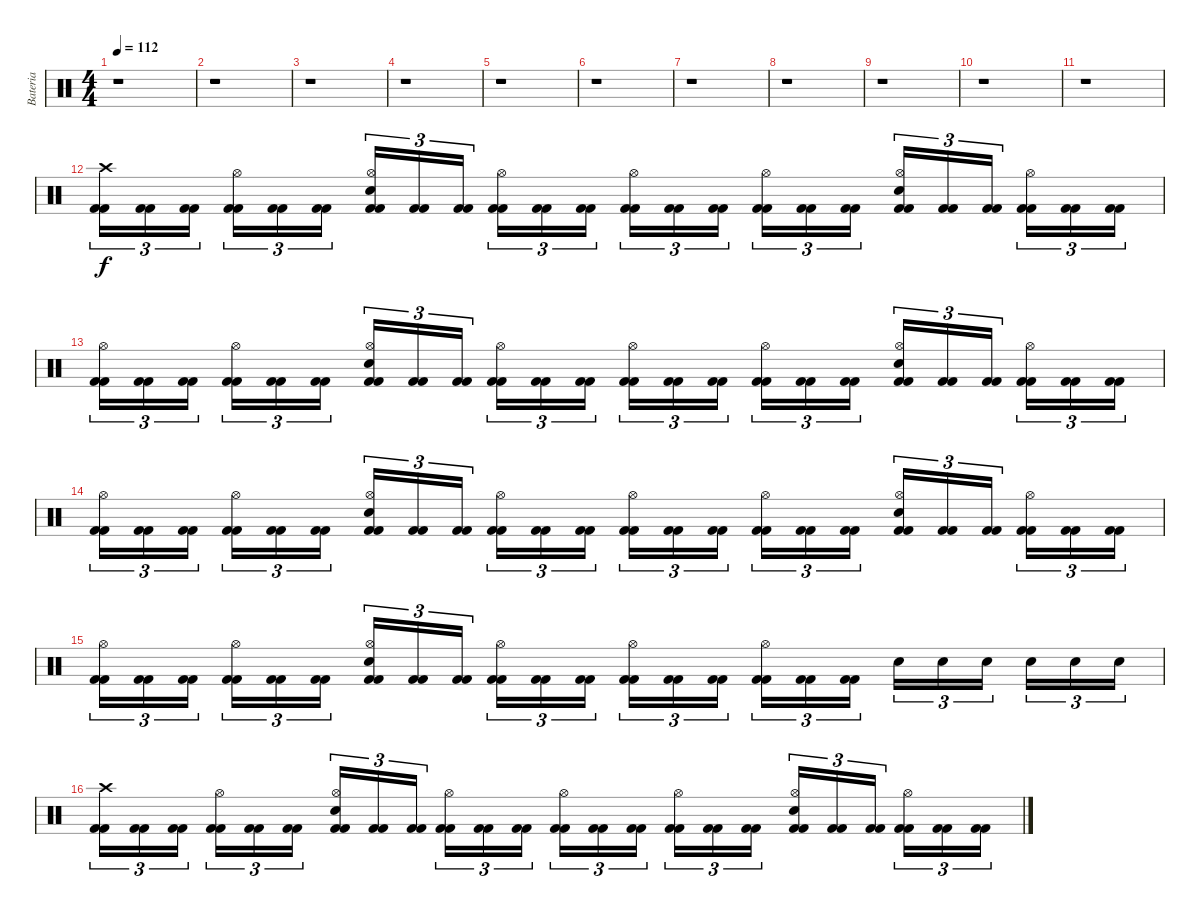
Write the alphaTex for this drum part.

\track ("Bateria" "Bateria") {instrument percussion}
\staff {score}
\articulation defaults
\ts (4 4)
\tempo 112
\clef neutral
\ks c
r.1{dy f} |
r.1 |
r.1 |
r.1 |
r.1 |
r.1 |
r.1 |
r.1 |
r.1 |
r.1 |
r.1 |
("Kick (hit) 2" "Kick (hit) 2" "Crash high (hit)").16{tu (3 2)} ("Kick (hit) 2" "Kick (hit) 2").16{tu (3 2)} ("Kick (hit) 2" "Kick (hit) 2").16{tu (3 2)} ("Kick (hit) 2" "Kick (hit) 2" "Hi-Hat (open)").16{tu (3 2)} ("Kick (hit) 2" "Kick (hit) 2").16{tu (3 2)} ("Kick (hit) 2" "Kick (hit) 2").16{tu (3 2)} ("Kick (hit) 2" "Kick (hit) 2" "Snare (hit) 2" "Hi-Hat (open)").16{tu (3 2)} ("Kick (hit) 2" "Kick (hit) 2").16{tu (3 2)} ("Kick (hit) 2" "Kick (hit) 2").16{tu (3 2)} ("Kick (hit) 2" "Kick (hit) 2" "Hi-Hat (open)").16{tu (3 2)} ("Kick (hit) 2" "Kick (hit) 2").16{tu (3 2)} ("Kick (hit) 2" "Kick (hit) 2").16{tu (3 2)} ("Kick (hit) 2" "Kick (hit) 2" "Hi-Hat (open)").16{tu (3 2)} ("Kick (hit) 2" "Kick (hit) 2").16{tu (3 2)} ("Kick (hit) 2" "Kick (hit) 2").16{tu (3 2)} ("Kick (hit) 2" "Kick (hit) 2" "Hi-Hat (open)").16{tu (3 2)} ("Kick (hit) 2" "Kick (hit) 2").16{tu (3 2)} ("Kick (hit) 2" "Kick (hit) 2").16{tu (3 2)} ("Kick (hit) 2" "Kick (hit) 2" "Snare (hit) 2" "Hi-Hat (open)").16{tu (3 2)} ("Kick (hit) 2" "Kick (hit) 2").16{tu (3 2)} ("Kick (hit) 2" "Kick (hit) 2").16{tu (3 2)} ("Kick (hit) 2" "Kick (hit) 2" "Hi-Hat (open)").16{tu (3 2)} ("Kick (hit) 2" "Kick (hit) 2").16{tu (3 2)} ("Kick (hit) 2" "Kick (hit) 2").16{tu (3 2)} |
("Kick (hit) 2" "Kick (hit) 2" "Hi-Hat (open)").16{tu (3 2)} ("Kick (hit) 2" "Kick (hit) 2").16{tu (3 2)} ("Kick (hit) 2" "Kick (hit) 2").16{tu (3 2)} ("Kick (hit) 2" "Kick (hit) 2" "Hi-Hat (open)").16{tu (3 2)} ("Kick (hit) 2" "Kick (hit) 2").16{tu (3 2)} ("Kick (hit) 2" "Kick (hit) 2").16{tu (3 2)} ("Kick (hit) 2" "Kick (hit) 2" "Snare (hit) 2" "Hi-Hat (open)").16{tu (3 2)} ("Kick (hit) 2" "Kick (hit) 2").16{tu (3 2)} ("Kick (hit) 2" "Kick (hit) 2").16{tu (3 2)} ("Kick (hit) 2" "Kick (hit) 2" "Hi-Hat (open)").16{tu (3 2)} ("Kick (hit) 2" "Kick (hit) 2").16{tu (3 2)} ("Kick (hit) 2" "Kick (hit) 2").16{tu (3 2)} ("Kick (hit) 2" "Kick (hit) 2" "Hi-Hat (open)").16{tu (3 2)} ("Kick (hit) 2" "Kick (hit) 2").16{tu (3 2)} ("Kick (hit) 2" "Kick (hit) 2").16{tu (3 2)} ("Kick (hit) 2" "Kick (hit) 2" "Hi-Hat (open)").16{tu (3 2)} ("Kick (hit) 2" "Kick (hit) 2").16{tu (3 2)} ("Kick (hit) 2" "Kick (hit) 2").16{tu (3 2)} ("Kick (hit) 2" "Kick (hit) 2" "Snare (hit) 2" "Hi-Hat (open)").16{tu (3 2)} ("Kick (hit) 2" "Kick (hit) 2").16{tu (3 2)} ("Kick (hit) 2" "Kick (hit) 2").16{tu (3 2)} ("Kick (hit) 2" "Kick (hit) 2" "Hi-Hat (open)").16{tu (3 2)} ("Kick (hit) 2" "Kick (hit) 2").16{tu (3 2)} ("Kick (hit) 2" "Kick (hit) 2").16{tu (3 2)} |
("Kick (hit) 2" "Kick (hit) 2" "Hi-Hat (open)").16{tu (3 2)} ("Kick (hit) 2" "Kick (hit) 2").16{tu (3 2)} ("Kick (hit) 2" "Kick (hit) 2").16{tu (3 2)} ("Kick (hit) 2" "Kick (hit) 2" "Hi-Hat (open)").16{tu (3 2)} ("Kick (hit) 2" "Kick (hit) 2").16{tu (3 2)} ("Kick (hit) 2" "Kick (hit) 2").16{tu (3 2)} ("Kick (hit) 2" "Kick (hit) 2" "Snare (hit) 2" "Hi-Hat (open)").16{tu (3 2)} ("Kick (hit) 2" "Kick (hit) 2").16{tu (3 2)} ("Kick (hit) 2" "Kick (hit) 2").16{tu (3 2)} ("Kick (hit) 2" "Kick (hit) 2" "Hi-Hat (open)").16{tu (3 2)} ("Kick (hit) 2" "Kick (hit) 2").16{tu (3 2)} ("Kick (hit) 2" "Kick (hit) 2").16{tu (3 2)} ("Kick (hit) 2" "Kick (hit) 2" "Hi-Hat (open)").16{tu (3 2)} ("Kick (hit) 2" "Kick (hit) 2").16{tu (3 2)} ("Kick (hit) 2" "Kick (hit) 2").16{tu (3 2)} ("Kick (hit) 2" "Kick (hit) 2" "Hi-Hat (open)").16{tu (3 2)} ("Kick (hit) 2" "Kick (hit) 2").16{tu (3 2)} ("Kick (hit) 2" "Kick (hit) 2").16{tu (3 2)} ("Kick (hit) 2" "Kick (hit) 2" "Snare (hit) 2" "Hi-Hat (open)").16{tu (3 2)} ("Kick (hit) 2" "Kick (hit) 2").16{tu (3 2)} ("Kick (hit) 2" "Kick (hit) 2").16{tu (3 2)} ("Kick (hit) 2" "Kick (hit) 2" "Hi-Hat (open)").16{tu (3 2)} ("Kick (hit) 2" "Kick (hit) 2").16{tu (3 2)} ("Kick (hit) 2" "Kick (hit) 2").16{tu (3 2)} |
("Kick (hit) 2" "Kick (hit) 2" "Hi-Hat (open)").16{tu (3 2)} ("Kick (hit) 2" "Kick (hit) 2").16{tu (3 2)} ("Kick (hit) 2" "Kick (hit) 2").16{tu (3 2)} ("Kick (hit) 2" "Kick (hit) 2" "Hi-Hat (open)").16{tu (3 2)} ("Kick (hit) 2" "Kick (hit) 2").16{tu (3 2)} ("Kick (hit) 2" "Kick (hit) 2").16{tu (3 2)} ("Kick (hit) 2" "Kick (hit) 2" "Snare (hit) 2" "Hi-Hat (open)").16{tu (3 2)} ("Kick (hit) 2" "Kick (hit) 2").16{tu (3 2)} ("Kick (hit) 2" "Kick (hit) 2").16{tu (3 2)} ("Kick (hit) 2" "Kick (hit) 2" "Hi-Hat (open)").16{tu (3 2)} ("Kick (hit) 2" "Kick (hit) 2").16{tu (3 2)} ("Kick (hit) 2" "Kick (hit) 2").16{tu (3 2)} ("Kick (hit) 2" "Kick (hit) 2" "Hi-Hat (open)").16{tu (3 2)} ("Kick (hit) 2" "Kick (hit) 2").16{tu (3 2)} ("Kick (hit) 2" "Kick (hit) 2").16{tu (3 2)} ("Kick (hit) 2" "Kick (hit) 2" "Hi-Hat (open)").16{tu (3 2)} ("Kick (hit) 2" "Kick (hit) 2").16{tu (3 2)} ("Kick (hit) 2" "Kick (hit) 2").16{tu (3 2)} "Snare (hit) 2".16{tu (3 2)} "Snare (hit) 2".16{tu (3 2)} "Snare (hit) 2".16{tu (3 2)} "Snare (hit) 2".16{tu (3 2)} "Snare (hit) 2".16{tu (3 2)} "Snare (hit) 2".16{tu (3 2)} |
("Kick (hit) 2" "Kick (hit) 2" "Crash high (hit)").16{tu (3 2)} ("Kick (hit) 2" "Kick (hit) 2").16{tu (3 2)} ("Kick (hit) 2" "Kick (hit) 2").16{tu (3 2)} ("Kick (hit) 2" "Kick (hit) 2" "Hi-Hat (open)").16{tu (3 2)} ("Kick (hit) 2" "Kick (hit) 2").16{tu (3 2)} ("Kick (hit) 2" "Kick (hit) 2").16{tu (3 2)} ("Kick (hit) 2" "Kick (hit) 2" "Snare (hit) 2" "Hi-Hat (open)").16{tu (3 2)} ("Kick (hit) 2" "Kick (hit) 2").16{tu (3 2)} ("Kick (hit) 2" "Kick (hit) 2").16{tu (3 2)} ("Kick (hit) 2" "Kick (hit) 2" "Hi-Hat (open)").16{tu (3 2)} ("Kick (hit) 2" "Kick (hit) 2").16{tu (3 2)} ("Kick (hit) 2" "Kick (hit) 2").16{tu (3 2)} ("Kick (hit) 2" "Kick (hit) 2" "Hi-Hat (open)").16{tu (3 2)} ("Kick (hit) 2" "Kick (hit) 2").16{tu (3 2)} ("Kick (hit) 2" "Kick (hit) 2").16{tu (3 2)} ("Kick (hit) 2" "Kick (hit) 2" "Hi-Hat (open)").16{tu (3 2)} ("Kick (hit) 2" "Kick (hit) 2").16{tu (3 2)} ("Kick (hit) 2" "Kick (hit) 2").16{tu (3 2)} ("Kick (hit) 2" "Kick (hit) 2" "Snare (hit) 2" "Hi-Hat (open)").16{tu (3 2)} ("Kick (hit) 2" "Kick (hit) 2").16{tu (3 2)} ("Kick (hit) 2" "Kick (hit) 2").16{tu (3 2)} ("Kick (hit) 2" "Kick (hit) 2" "Hi-Hat (open)").16{tu (3 2)} ("Kick (hit) 2" "Kick (hit) 2").16{tu (3 2)} ("Kick (hit) 2" "Kick (hit) 2").16{tu (3 2)}
